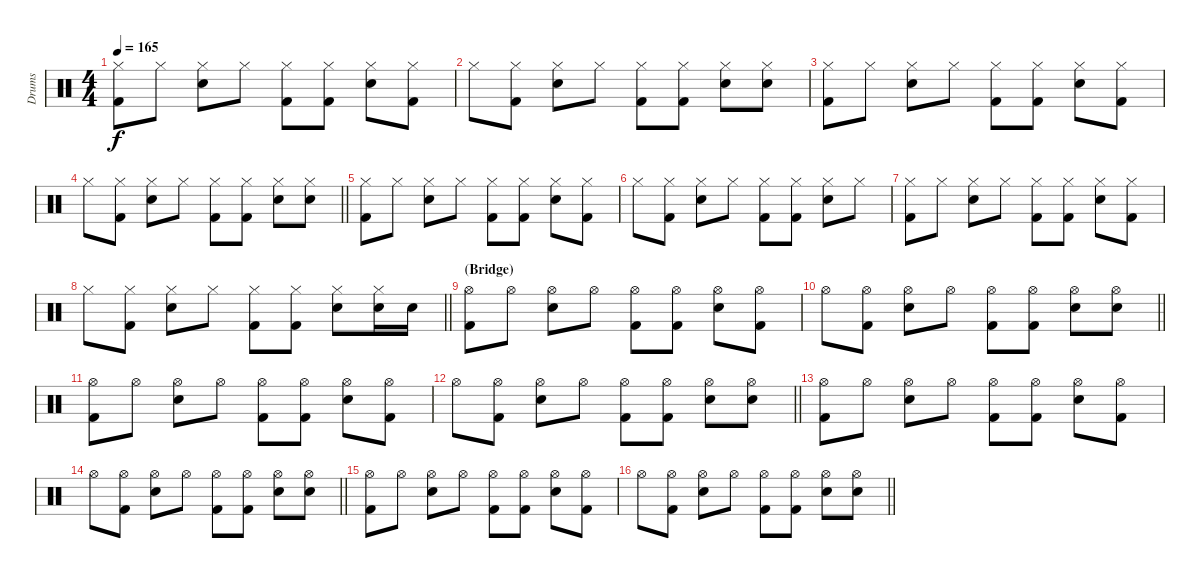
\track ("Drums" "Drums") {instrument percussion}
\staff {score}
\articulation defaults
\ts (4 4)
\tempo 165
\clef neutral
\ks c
("Hi-Hat (closed)" "Kick (hit) 2").8{dy f} "Hi-Hat (closed)".8 ("Hi-Hat (closed)" "Electric Snare (hit)").8 "Hi-Hat (closed)".8 ("Hi-Hat (closed)" "Kick (hit) 2").8 ("Hi-Hat (closed)" "Kick (hit) 2").8 ("Hi-Hat (closed)" "Electric Snare (hit)").8 ("Hi-Hat (closed)" "Kick (hit) 2").8 |
"Hi-Hat (closed)".8 ("Hi-Hat (closed)" "Kick (hit) 2").8 ("Hi-Hat (closed)" "Electric Snare (hit)").8 "Hi-Hat (closed)".8 ("Hi-Hat (closed)" "Kick (hit) 2").8 ("Hi-Hat (closed)" "Kick (hit) 2").8 ("Hi-Hat (closed)" "Electric Snare (hit)").8 ("Hi-Hat (closed)" "Electric Snare (hit)").8 |
("Hi-Hat (closed)" "Kick (hit) 2").8 "Hi-Hat (closed)".8 ("Hi-Hat (closed)" "Electric Snare (hit)").8 "Hi-Hat (closed)".8 ("Hi-Hat (closed)" "Kick (hit) 2").8 ("Hi-Hat (closed)" "Kick (hit) 2").8 ("Hi-Hat (closed)" "Electric Snare (hit)").8 ("Hi-Hat (closed)" "Kick (hit) 2").8 |
\barLineRight lightlight "Hi-Hat (closed)".8
("Hi-Hat (closed)" "Kick (hit) 2").8 ("Hi-Hat (closed)" "Electric Snare (hit)").8 "Hi-Hat (closed)".8 ("Hi-Hat (closed)" "Kick (hit) 2").8 ("Hi-Hat (closed)" "Kick (hit) 2").8 ("Hi-Hat (closed)" "Electric Snare (hit)").8 ("Hi-Hat (closed)" "Electric Snare (hit)").8 |
("Hi-Hat (closed)" "Kick (hit) 2").8 "Hi-Hat (closed)".8 ("Hi-Hat (closed)" "Electric Snare (hit)").8 "Hi-Hat (closed)".8 ("Hi-Hat (closed)" "Kick (hit) 2").8 ("Hi-Hat (closed)" "Kick (hit) 2").8 ("Hi-Hat (closed)" "Electric Snare (hit)").8 ("Hi-Hat (closed)" "Kick (hit) 2").8 |
"Hi-Hat (closed)".8 ("Hi-Hat (closed)" "Kick (hit) 2").8 ("Hi-Hat (closed)" "Electric Snare (hit)").8 "Hi-Hat (closed)".8 ("Hi-Hat (closed)" "Kick (hit) 2").8 ("Hi-Hat (closed)" "Kick (hit) 2").8 ("Hi-Hat (closed)" "Electric Snare (hit)").8 "Hi-Hat (closed)".8 |
("Hi-Hat (closed)" "Kick (hit) 2").8 "Hi-Hat (closed)".8 ("Hi-Hat (closed)" "Electric Snare (hit)").8 "Hi-Hat (closed)".8 ("Hi-Hat (closed)" "Kick (hit) 2").8 ("Hi-Hat (closed)" "Kick (hit) 2").8 ("Hi-Hat (closed)" "Electric Snare (hit)").8 ("Hi-Hat (closed)" "Kick (hit) 2").8 |
\barLineRight lightlight "Hi-Hat (closed)".8
("Hi-Hat (closed)" "Kick (hit) 2").8 ("Hi-Hat (closed)" "Electric Snare (hit)").8 "Hi-Hat (closed)".8 ("Hi-Hat (closed)" "Kick (hit) 2").8 ("Hi-Hat (closed)" "Kick (hit) 2").8 ("Hi-Hat (closed)" "Electric Snare (hit)").8 ("Hi-Hat (closed)" "Electric Snare (hit)").16 "Electric Snare (hit)".16 |
\section ("" "(Bridge)")
("Hi-Hat (open)" "Kick (hit) 2").8 "Hi-Hat (open)".8 ("Hi-Hat (open)" "Electric Snare (hit)").8 "Hi-Hat (open)".8 ("Hi-Hat (open)" "Kick (hit) 2").8 ("Hi-Hat (open)" "Kick (hit) 2").8 ("Hi-Hat (open)" "Electric Snare (hit)").8 ("Hi-Hat (open)" "Kick (hit) 2").8 |
\barLineRight lightlight "Hi-Hat (open)".8
("Hi-Hat (open)" "Kick (hit) 2").8 ("Hi-Hat (open)" "Electric Snare (hit)").8 "Hi-Hat (open)".8 ("Hi-Hat (open)" "Kick (hit) 2").8 ("Hi-Hat (open)" "Kick (hit) 2").8 ("Hi-Hat (open)" "Electric Snare (hit)").8 ("Hi-Hat (open)" "Electric Snare (hit)").8 |
("Hi-Hat (open)" "Kick (hit) 2").8 "Hi-Hat (open)".8 ("Hi-Hat (open)" "Electric Snare (hit)").8 "Hi-Hat (open)".8 ("Hi-Hat (open)" "Kick (hit) 2").8 ("Hi-Hat (open)" "Kick (hit) 2").8 ("Hi-Hat (open)" "Electric Snare (hit)").8 ("Hi-Hat (open)" "Kick (hit) 2").8 |
\barLineRight lightlight "Hi-Hat (open)".8
("Hi-Hat (open)" "Kick (hit) 2").8 ("Hi-Hat (open)" "Electric Snare (hit)").8 "Hi-Hat (open)".8 ("Hi-Hat (open)" "Kick (hit) 2").8 ("Hi-Hat (open)" "Kick (hit) 2").8 ("Hi-Hat (open)" "Electric Snare (hit)").8 ("Hi-Hat (open)" "Electric Snare (hit)").8 |
("Hi-Hat (open)" "Kick (hit) 2").8 "Hi-Hat (open)".8 ("Hi-Hat (open)" "Electric Snare (hit)").8 "Hi-Hat (open)".8 ("Hi-Hat (open)" "Kick (hit) 2").8 ("Hi-Hat (open)" "Kick (hit) 2").8 ("Hi-Hat (open)" "Electric Snare (hit)").8 ("Hi-Hat (open)" "Kick (hit) 2").8 |
\barLineRight lightlight "Hi-Hat (open)".8
("Hi-Hat (open)" "Kick (hit) 2").8 ("Hi-Hat (open)" "Electric Snare (hit)").8 "Hi-Hat (open)".8 ("Hi-Hat (open)" "Kick (hit) 2").8 ("Hi-Hat (open)" "Kick (hit) 2").8 ("Hi-Hat (open)" "Electric Snare (hit)").8 ("Hi-Hat (open)" "Electric Snare (hit)").8 |
("Hi-Hat (open)" "Kick (hit) 2").8 "Hi-Hat (open)".8 ("Hi-Hat (open)" "Electric Snare (hit)").8 "Hi-Hat (open)".8 ("Hi-Hat (open)" "Kick (hit) 2").8 ("Hi-Hat (open)" "Kick (hit) 2").8 ("Hi-Hat (open)" "Electric Snare (hit)").8 ("Hi-Hat (open)" "Kick (hit) 2").8 |
\barLineRight lightlight "Hi-Hat (open)".8
("Hi-Hat (open)" "Kick (hit) 2").8 ("Hi-Hat (open)" "Electric Snare (hit)").8 "Hi-Hat (open)".8 ("Hi-Hat (open)" "Kick (hit) 2").8 ("Hi-Hat (open)" "Kick (hit) 2").8 ("Hi-Hat (open)" "Electric Snare (hit)").8 ("Hi-Hat (open)" "Electric Snare (hit)").8
